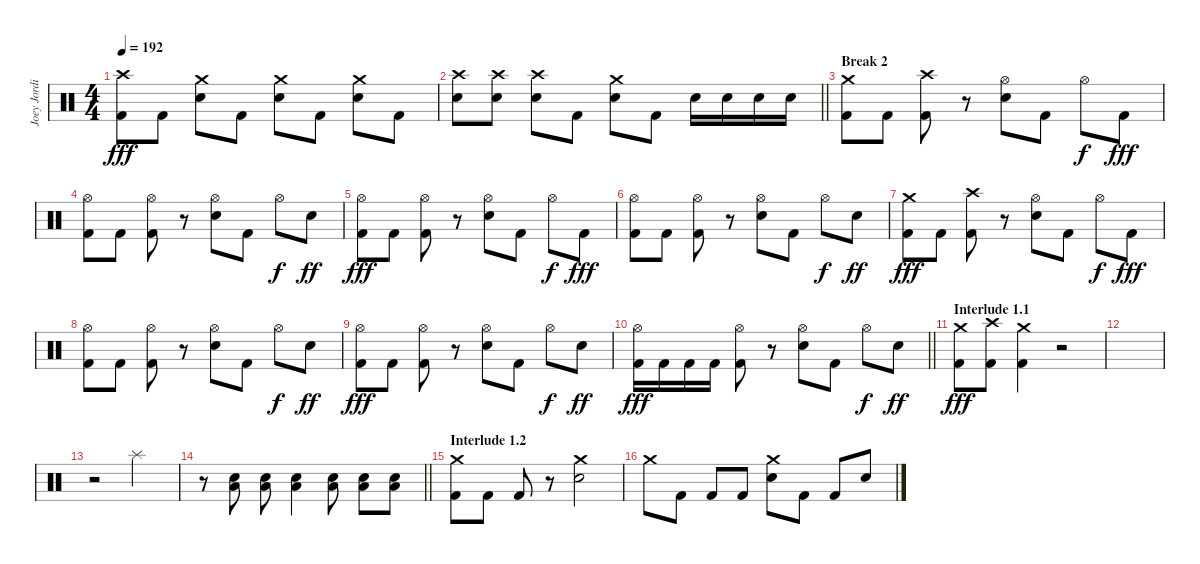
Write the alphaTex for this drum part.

\track ("Joey Jordison" "Joey Jordi") {instrument percussion}
\staff {score}
\articulation defaults
\ts (4 4)
\tempo 192
\clef neutral
\ks c
("Crash high (hit)" "Kick (hit) 2").8{dy fff} "Kick (hit) 2".8 ("Crash medium (hit)" "Electric Snare (hit)").8 "Kick (hit) 2".8 ("Crash medium (hit)" "Electric Snare (hit)").8 "Kick (hit) 2".8 ("Crash medium (hit)" "Electric Snare (hit)").8 "Kick (hit) 2".8 |
\barLineRight lightlight
("Crash high (hit)" "Electric Snare (hit)").8 ("Crash high (hit)" "Electric Snare (hit)").8 ("Crash high (hit)" "Electric Snare (hit)").8 "Kick (hit) 2".8 ("Crash medium (hit)" "Electric Snare (hit)").8 "Kick (hit) 2".8 "Electric Snare (hit)".16 "Electric Snare (hit)".16 "Electric Snare (hit)".16 "Electric Snare (hit)".16 |
\section ("" "Break 2")
("Crash medium (hit)" "Kick (hit) 2").8 "Kick (hit) 2".8 ("Crash high (hit)" "Kick (hit) 2").8 r.8 ("Hi-Hat (open)" "Electric Snare (hit)").8 "Kick (hit) 2".8 "Hi-Hat (open)".8{dy f} "Kick (hit) 2".8{dy fff} |
("Hi-Hat (open)" "Kick (hit) 2").8 "Kick (hit) 2".8 ("Hi-Hat (open)" "Kick (hit) 2").8 r.8 ("Hi-Hat (open)" "Electric Snare (hit)").8 "Kick (hit) 2".8 "Hi-Hat (open)".8{dy f} "Electric Snare (hit)".8{dy ff} |
("Hi-Hat (open)" "Kick (hit) 2").8{dy fff} "Kick (hit) 2".8 ("Hi-Hat (open)" "Kick (hit) 2").8 r.8 ("Hi-Hat (open)" "Electric Snare (hit)").8 "Kick (hit) 2".8 "Hi-Hat (open)".8{dy f} "Kick (hit) 2".8{dy fff} |
("Hi-Hat (open)" "Kick (hit) 2").8 "Kick (hit) 2".8 ("Hi-Hat (open)" "Kick (hit) 2").8 r.8 ("Hi-Hat (open)" "Electric Snare (hit)").8 "Kick (hit) 2".8 "Hi-Hat (open)".8{dy f} "Electric Snare (hit)".8{dy ff} |
("Crash medium (hit)" "Kick (hit) 2").8{dy fff} "Kick (hit) 2".8 ("Crash high (hit)" "Kick (hit) 2").8 r.8 ("Hi-Hat (open)" "Electric Snare (hit)").8 "Kick (hit) 2".8 "Hi-Hat (open)".8{dy f} "Kick (hit) 2".8{dy fff} |
("Hi-Hat (open)" "Kick (hit) 2").8 "Kick (hit) 2".8 ("Hi-Hat (open)" "Kick (hit) 2").8 r.8 ("Hi-Hat (open)" "Electric Snare (hit)").8 "Kick (hit) 2".8 "Hi-Hat (open)".8{dy f} "Electric Snare (hit)".8{dy ff} |
("Hi-Hat (open)" "Kick (hit) 2").8{dy fff} "Kick (hit) 2".8 ("Hi-Hat (open)" "Kick (hit) 2").8 r.8 ("Hi-Hat (open)" "Electric Snare (hit)").8 "Kick (hit) 2".8 "Hi-Hat (open)".8{dy f} "Electric Snare (hit)".8{dy ff} |
\barLineRight lightlight
("Hi-Hat (open)" "Kick (hit) 2").16{dy fff} "Kick (hit) 2".16 "Kick (hit) 2".16 "Kick (hit) 2".16 ("Hi-Hat (open)" "Kick (hit) 2").8 r.8 ("Hi-Hat (open)" "Electric Snare (hit)").8 "Kick (hit) 2".8 "Hi-Hat (open)".8{dy f} "Electric Snare (hit)".8{dy ff} |
\section ("" "Interlude 1.1")
("Crash medium (hit)" "Kick (hit) 2").8{dy fff} ("Crash high (hit)" "Kick (hit) 2").8 ("Crash medium (hit)" "Kick (hit) 2").4 r.2 |
|
r.2 "Splash (hit)".2 |
\barLineRight lightlight
r.8 ("Electric Snare (hit)" "Low Floor Tom (hit)").8 ("Electric Snare (hit)" "Low Floor Tom (hit)").8 ("Electric Snare (hit)" "Low Floor Tom (hit)").4 ("Electric Snare (hit)" "Low Floor Tom (hit)").8 ("Electric Snare (hit)" "Low Floor Tom (hit)").8 ("Electric Snare (hit)" "Low Floor Tom (hit)").8 |
\section ("" "Interlude 1.2")
("Crash medium (hit)" "Kick (hit) 2").8 "Kick (hit) 2".8 "Kick (hit) 2".8 r.8 ("Crash medium (hit)" "Electric Snare (hit)").2 |
"Crash medium (hit)".8 "Kick (hit) 2".8 "Kick (hit) 2".8 "Kick (hit) 2".8 ("Crash medium (hit)" "Electric Snare (hit)").8 "Kick (hit) 2".8 "Kick (hit) 2".8 "Electric Snare (hit)".8
